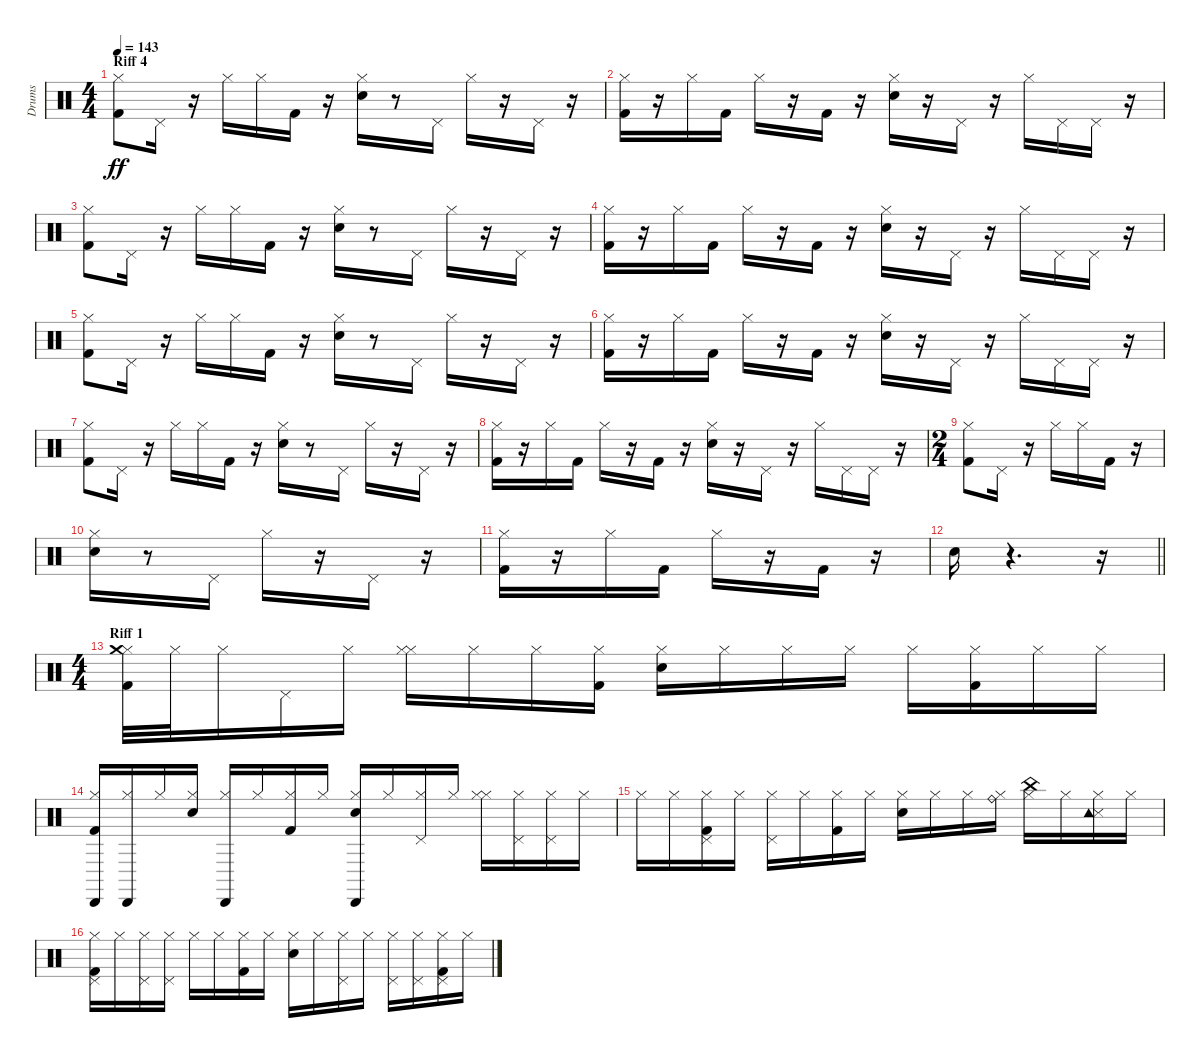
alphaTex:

\track ("Drums" "Drums") {instrument percussion}
\staff {score}
\articulation defaults
\ts (4 4)
\section ("" "Riff 4")
\tempo 143
\clef neutral
\ks c
("Kick (hit) 2" "Hi-Hat (closed)").8{dy ff} "Pedal Hi-Hat (hit)".16 r.16 "Hi-Hat (closed)".16 "Hi-Hat (closed)".16 "Kick (hit) 2".16 r.16 ("Snare (hit) 2" "Hi-Hat (closed)").16 r.8 "Pedal Hi-Hat (hit)".16 "Hi-Hat (closed)".16 r.16 "Pedal Hi-Hat (hit)".16 r.16 |
("Kick (hit) 2" "Hi-Hat (closed)").16 r.16 "Hi-Hat (closed)".16 "Kick (hit) 2".16 "Hi-Hat (closed)".16 r.16 "Kick (hit) 2".16 r.16 ("Snare (hit) 2" "Hi-Hat (closed)").16 r.16 "Pedal Hi-Hat (hit)".16 r.16 "Hi-Hat (closed)".16 "Pedal Hi-Hat (hit)".16 "Pedal Hi-Hat (hit)".16 r.16 |
("Kick (hit) 2" "Hi-Hat (closed)").8 "Pedal Hi-Hat (hit)".16 r.16 "Hi-Hat (closed)".16 "Hi-Hat (closed)".16 "Kick (hit) 2".16 r.16 ("Snare (hit) 2" "Hi-Hat (closed)").16 r.8 "Pedal Hi-Hat (hit)".16 "Hi-Hat (closed)".16 r.16 "Pedal Hi-Hat (hit)".16 r.16 |
("Kick (hit) 2" "Hi-Hat (closed)").16 r.16 "Hi-Hat (closed)".16 "Kick (hit) 2".16 "Hi-Hat (closed)".16 r.16 "Kick (hit) 2".16 r.16 ("Snare (hit) 2" "Hi-Hat (closed)").16 r.16 "Pedal Hi-Hat (hit)".16 r.16 "Hi-Hat (closed)".16 "Pedal Hi-Hat (hit)".16 "Pedal Hi-Hat (hit)".16 r.16 |
("Kick (hit) 2" "Hi-Hat (closed)").8 "Pedal Hi-Hat (hit)".16 r.16 "Hi-Hat (closed)".16 "Hi-Hat (closed)".16 "Kick (hit) 2".16 r.16 ("Snare (hit) 2" "Hi-Hat (closed)").16 r.8 "Pedal Hi-Hat (hit)".16 "Hi-Hat (closed)".16 r.16 "Pedal Hi-Hat (hit)".16 r.16 |
("Kick (hit) 2" "Hi-Hat (closed)").16 r.16 "Hi-Hat (closed)".16 "Kick (hit) 2".16 "Hi-Hat (closed)".16 r.16 "Kick (hit) 2".16 r.16 ("Snare (hit) 2" "Hi-Hat (closed)").16 r.16 "Pedal Hi-Hat (hit)".16 r.16 "Hi-Hat (closed)".16 "Pedal Hi-Hat (hit)".16 "Pedal Hi-Hat (hit)".16 r.16 |
("Kick (hit) 2" "Hi-Hat (closed)").8 "Pedal Hi-Hat (hit)".16 r.16 "Hi-Hat (closed)".16 "Hi-Hat (closed)".16 "Kick (hit) 2".16 r.16 ("Snare (hit) 2" "Hi-Hat (closed)").16 r.8 "Pedal Hi-Hat (hit)".16 "Hi-Hat (closed)".16 r.16 "Pedal Hi-Hat (hit)".16 r.16 |
("Kick (hit) 2" "Hi-Hat (closed)").16 r.16 "Hi-Hat (closed)".16 "Kick (hit) 2".16 "Hi-Hat (closed)".16 r.16 "Kick (hit) 2".16 r.16 ("Snare (hit) 2" "Hi-Hat (closed)").16 r.16 "Pedal Hi-Hat (hit)".16 r.16 "Hi-Hat (closed)".16 "Pedal Hi-Hat (hit)".16 "Pedal Hi-Hat (hit)".16 r.16 |
\ts (2 4)
("Kick (hit) 2" "Hi-Hat (closed)").8 "Pedal Hi-Hat (hit)".16 r.16 "Hi-Hat (closed)".16 "Hi-Hat (closed)".16 "Kick (hit) 2".16 r.16 |
("Snare (hit) 2" "Hi-Hat (closed)").16 r.8 "Pedal Hi-Hat (hit)".16 "Hi-Hat (closed)".16 r.16 "Pedal Hi-Hat (hit)".16 r.16 |
("Kick (hit) 2" "Hi-Hat (closed)").16 r.16 "Hi-Hat (closed)".16 "Kick (hit) 2".16 "Hi-Hat (closed)".16 r.16 "Kick (hit) 2".16 r.16 |
\barLineRight lightlight "Snare (hit) 2".16
r.4{d} r.16 |
\ts (4 4)
\section ("" "Riff 1")
("Kick (hit) 2" "Hi-Hat (closed)" "Crash medium (hit)").32 "Hi-Hat (closed)".32 "Hi-Hat (closed)".16 "Pedal Hi-Hat (hit)".16 "Hi-Hat (closed)".16 ("Hi-Hat (closed)" "Hi-Hat (closed)").16 "Hi-Hat (closed)".16 "Hi-Hat (closed)".16 ("Kick (hit) 2" "Hi-Hat (closed)").16 ("Snare (hit) 2" "Hi-Hat (closed)").16 "Hi-Hat (closed)".16 "Hi-Hat (closed)".16 "Hi-Hat (closed)".16 "Hi-Hat (closed)".16 ("Kick (hit) 2" "Hi-Hat (closed)").16 "Hi-Hat (closed)".16 "Hi-Hat (closed)".16 |
("Kick (hit) 2" "Cabasa (hit)" "Hi-Hat (closed)").16 ("Cabasa (hit)" "Hi-Hat (closed)").16 "Hi-Hat (closed)".16 ("Snare (hit) 2" "Hi-Hat (closed)").16 ("Cabasa (hit)" "Hi-Hat (closed)").16 "Hi-Hat (closed)".16 ("Kick (hit) 2" "Hi-Hat (closed)").16 "Hi-Hat (closed)".16 ("Snare (hit) 2" "Cabasa (hit)" "Hi-Hat (closed)").16 "Hi-Hat (closed)".16 ("Pedal Hi-Hat (hit)" "Hi-Hat (closed)").16 "Hi-Hat (closed)".16 ("Hi-Hat (closed)" "Hi-Hat (closed)").16 ("Pedal Hi-Hat (hit)" "Hi-Hat (closed)").16 ("Pedal Hi-Hat (hit)" "Hi-Hat (closed)").16 "Hi-Hat (closed)".16 |
"Hi-Hat (closed)".16 "Hi-Hat (closed)".16 ("Kick (hit) 2" "Pedal Hi-Hat (hit)" "Hi-Hat (closed)").16 "Hi-Hat (closed)".16 ("Hi-Hat (closed)" "Pedal Hi-Hat (hit)").16 "Hi-Hat (closed)".16 ("Kick (hit) 2" "Hi-Hat (closed)").16 "Hi-Hat (closed)".16 ("Snare (hit) 2" "Hi-Hat (closed)").16 "Hi-Hat (closed)".16 "Hi-Hat (closed)".16 ("Ride (bell)" "Hi-Hat (closed)").16 ("China (hit)" "Hi-Hat (closed)").16 "Hi-Hat (closed)".16 ("Snare (side stick) 3" "Tambourine (hit)" "Hi-Hat (closed)").16 "Hi-Hat (closed)".16 |
("Kick (hit) 2" "Hi-Hat (closed)" "Pedal Hi-Hat (hit)").16 "Hi-Hat (closed)".16 ("Hi-Hat (closed)" "Pedal Hi-Hat (hit)").16 ("Hi-Hat (closed)" "Pedal Hi-Hat (hit)").16 "Hi-Hat (closed)".16 "Hi-Hat (closed)".16 ("Kick (hit) 2" "Hi-Hat (closed)").16 "Hi-Hat (closed)".16 ("Snare (hit) 2" "Hi-Hat (closed)").16 "Hi-Hat (closed)".16 ("Hi-Hat (closed)" "Pedal Hi-Hat (hit)").16 "Hi-Hat (closed)".16 ("Hi-Hat (closed)" "Pedal Hi-Hat (hit)").16 ("Hi-Hat (closed)" "Pedal Hi-Hat (hit)").16 ("Kick (hit) 2" "Hi-Hat (closed)" "Pedal Hi-Hat (hit)").16 "Hi-Hat (closed)".16
